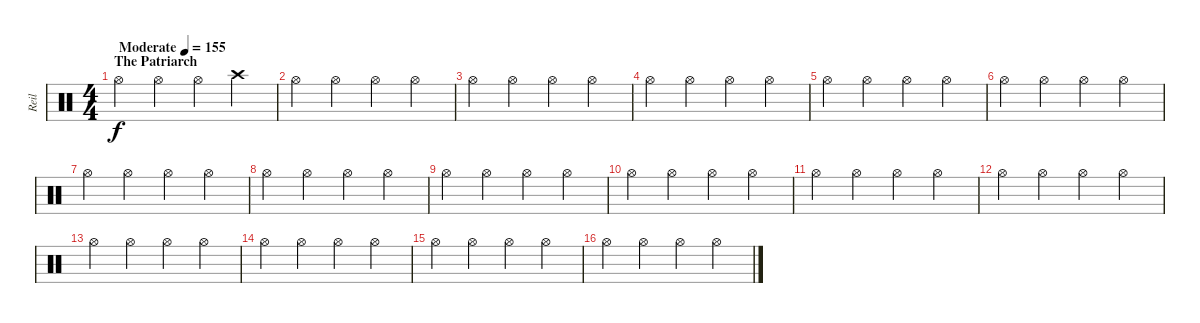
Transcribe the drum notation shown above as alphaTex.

\track ("Reil" "Reil") {instrument percussion}
\staff {score}
\articulation defaults
\ts (4 4)
\section ("" "The Patriarch")
\tempo (155 "Moderate")
\tempo 85
\tempo (155 "Moderate")
\clef neutral
\ks c "Hi-Hat (open)".4{dy f} "Hi-Hat (open)".4 "Hi-Hat (open)".4 "Crash high (hit)".4
|
"Hi-Hat (open)".4{volume 7} "Hi-Hat (open)".4 "Hi-Hat (open)".4 "Hi-Hat (open)".4 |
"Hi-Hat (open)".4 "Hi-Hat (open)".4 "Hi-Hat (open)".4 "Hi-Hat (open)".4 |
"Hi-Hat (open)".4 "Hi-Hat (open)".4 "Hi-Hat (open)".4 "Hi-Hat (open)".4 |
"Hi-Hat (open)".4 "Hi-Hat (open)".4 "Hi-Hat (open)".4 "Hi-Hat (open)".4 |
"Hi-Hat (open)".4 "Hi-Hat (open)".4 "Hi-Hat (open)".4 "Hi-Hat (open)".4 |
"Hi-Hat (open)".4 "Hi-Hat (open)".4 "Hi-Hat (open)".4 "Hi-Hat (open)".4 |
"Hi-Hat (open)".4 "Hi-Hat (open)".4 "Hi-Hat (open)".4 "Hi-Hat (open)".4 |
"Hi-Hat (open)".4 "Hi-Hat (open)".4 "Hi-Hat (open)".4 "Hi-Hat (open)".4 |
"Hi-Hat (open)".4 "Hi-Hat (open)".4 "Hi-Hat (open)".4 "Hi-Hat (open)".4 |
"Hi-Hat (open)".4 "Hi-Hat (open)".4 "Hi-Hat (open)".4 "Hi-Hat (open)".4 |
"Hi-Hat (open)".4 "Hi-Hat (open)".4 "Hi-Hat (open)".4 "Hi-Hat (open)".4 |
"Hi-Hat (open)".4 "Hi-Hat (open)".4 "Hi-Hat (open)".4 "Hi-Hat (open)".4 |
"Hi-Hat (open)".4 "Hi-Hat (open)".4 "Hi-Hat (open)".4 "Hi-Hat (open)".4 |
"Hi-Hat (open)".4 "Hi-Hat (open)".4 "Hi-Hat (open)".4 "Hi-Hat (open)".4 |
"Hi-Hat (open)".4 "Hi-Hat (open)".4 "Hi-Hat (open)".4 "Hi-Hat (open)".4
